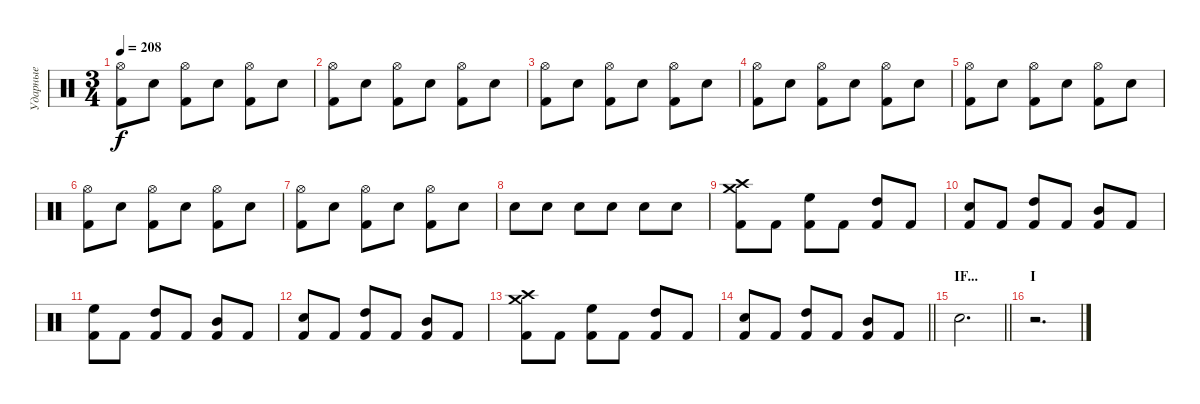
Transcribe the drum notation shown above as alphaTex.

\track ("Ударные" "Ударные") {instrument percussion}
\staff {score}
\articulation defaults
\ts (3 4)
\tempo 208
\clef neutral
\ks c
("Hi-Hat (open)" "Kick (hit) 2").8{dy f} "Electric Snare (hit)".8 ("Hi-Hat (open)" "Kick (hit) 2").8 "Electric Snare (hit)".8 ("Hi-Hat (open)" "Kick (hit) 2").8 "Electric Snare (hit)".8 |
("Hi-Hat (open)" "Kick (hit) 2").8 "Electric Snare (hit)".8 ("Hi-Hat (open)" "Kick (hit) 2").8 "Electric Snare (hit)".8 ("Hi-Hat (open)" "Kick (hit) 2").8 "Electric Snare (hit)".8 |
("Hi-Hat (open)" "Kick (hit) 2").8 "Electric Snare (hit)".8 ("Hi-Hat (open)" "Kick (hit) 2").8 "Electric Snare (hit)".8 ("Hi-Hat (open)" "Kick (hit) 2").8 "Electric Snare (hit)".8 |
("Hi-Hat (open)" "Kick (hit) 2").8 "Electric Snare (hit)".8 ("Hi-Hat (open)" "Kick (hit) 2").8 "Electric Snare (hit)".8 ("Hi-Hat (open)" "Kick (hit) 2").8 "Electric Snare (hit)".8 |
("Hi-Hat (open)" "Kick (hit) 2").8 "Electric Snare (hit)".8 ("Hi-Hat (open)" "Kick (hit) 2").8 "Electric Snare (hit)".8 ("Hi-Hat (open)" "Kick (hit) 2").8 "Electric Snare (hit)".8 |
("Hi-Hat (open)" "Kick (hit) 2").8 "Electric Snare (hit)".8 ("Hi-Hat (open)" "Kick (hit) 2").8 "Electric Snare (hit)".8 ("Hi-Hat (open)" "Kick (hit) 2").8 "Electric Snare (hit)".8 |
("Hi-Hat (open)" "Kick (hit) 2").8 "Electric Snare (hit)".8 ("Hi-Hat (open)" "Kick (hit) 2").8 "Electric Snare (hit)".8 ("Hi-Hat (open)" "Kick (hit) 2").8 "Electric Snare (hit)".8 |
"Electric Snare (hit)".8 "Electric Snare (hit)".8 "Electric Snare (hit)".8 "Electric Snare (hit)".8 "Electric Snare (hit)".8 "Electric Snare (hit)".8 |
("Crash medium (hit)" "Crash high (hit)" "Kick (hit) 2").8 "Kick (hit) 2".8 ("High Floor Tom (hit)" "Kick (hit) 2").8 "Kick (hit) 2".8 ("High Tom (hit)" "Kick (hit) 2").8 "Kick (hit) 2".8 |
("Electric Snare (hit)" "Kick (hit) 2").8 "Kick (hit) 2".8 ("High Tom (hit)" "Kick (hit) 2").8 "Kick (hit) 2".8 ("Mid Tom (hit)" "Kick (hit) 2").8 "Kick (hit) 2".8 |
("High Floor Tom (hit)" "Kick (hit) 2").8 "Kick (hit) 2".8 ("High Tom (hit)" "Kick (hit) 2").8 "Kick (hit) 2".8 ("Mid Tom (hit)" "Kick (hit) 2").8 "Kick (hit) 2".8 |
("Electric Snare (hit)" "Kick (hit) 2").8 "Kick (hit) 2".8 ("High Tom (hit)" "Kick (hit) 2").8 "Kick (hit) 2".8 ("Mid Tom (hit)" "Kick (hit) 2").8 "Kick (hit) 2".8 |
("Crash medium (hit)" "Crash high (hit)" "Kick (hit) 2").8 "Kick (hit) 2".8 ("High Floor Tom (hit)" "Kick (hit) 2").8 "Kick (hit) 2".8 ("High Tom (hit)" "Kick (hit) 2").8 "Kick (hit) 2".8 |
\barLineRight lightlight
("Electric Snare (hit)" "Kick (hit) 2").8 "Kick (hit) 2".8 ("High Tom (hit)" "Kick (hit) 2").8 "Kick (hit) 2".8 ("Mid Tom (hit)" "Kick (hit) 2").8 "Kick (hit) 2".8 |
\section ("" "IF...")
\barLineRight lightlight "Electric Snare (hit)".2{d}
|
\section ("" "I")
r.2{d}
